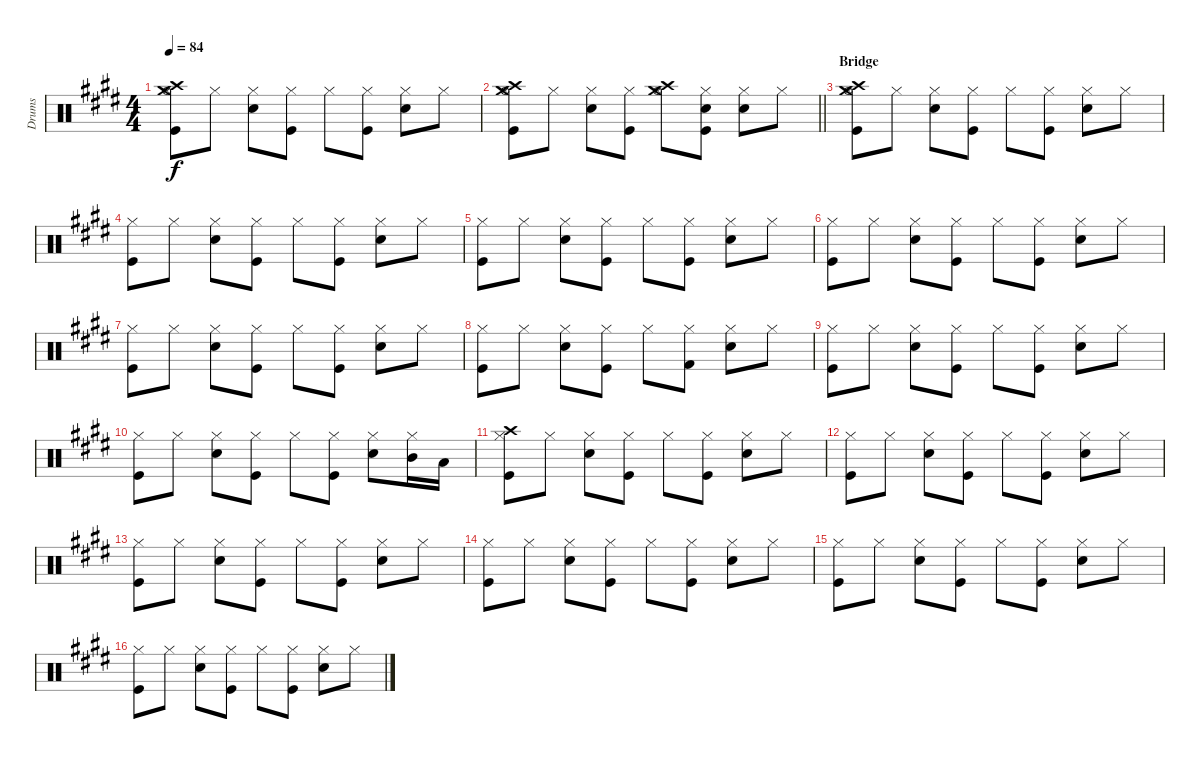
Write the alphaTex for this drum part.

\track ("Drums" "Drums") {instrument percussion}
\staff {score}
\articulation defaults
\ts (4 4)
\tempo 84
\clef neutral
\ks e
("Crash high (hit)" "Crash medium (hit)" "Hi-Hat (open)" "Kick (hit)").8{dy f} "Hi-Hat (closed)".8 ("Hi-Hat (closed)" "Snare (hit) 2").8 ("Hi-Hat (closed)" "Kick (hit)").8 "Hi-Hat (closed)".8 ("Hi-Hat (closed)" "Kick (hit)").8 ("Hi-Hat (closed)" "Snare (hit) 2").8 "Hi-Hat (closed)".8 |
\barLineRight lightlight
("Crash high (hit)" "Crash medium (hit)" "Hi-Hat (open)" "Kick (hit)").8 "Hi-Hat (closed)".8 ("Hi-Hat (closed)" "Snare (hit) 2").8 ("Hi-Hat (closed)" "Kick (hit)").8 ("Crash high (hit)" "Crash medium (hit)" "Hi-Hat (open)").8 ("Hi-Hat (closed)" "Kick (hit)" "Snare (hit) 2").8 ("Hi-Hat (closed)" "Snare (hit) 2").8 "Hi-Hat (closed)".8 |
\section ("" "Bridge")
("Crash high (hit)" "Crash medium (hit)" "Hi-Hat (open)" "Kick (hit)").8 "Hi-Hat (closed)".8 ("Hi-Hat (closed)" "Snare (hit) 2").8 ("Hi-Hat (closed)" "Kick (hit)").8 "Hi-Hat (closed)".8 ("Hi-Hat (closed)" "Kick (hit)").8 ("Hi-Hat (closed)" "Snare (hit) 2").8 "Hi-Hat (closed)".8 |
("Hi-Hat (closed)" "Kick (hit)").8 "Hi-Hat (closed)".8 ("Hi-Hat (closed)" "Snare (hit) 2").8 ("Hi-Hat (closed)" "Kick (hit)").8 "Hi-Hat (closed)".8 ("Hi-Hat (closed)" "Kick (hit)").8 ("Hi-Hat (closed)" "Snare (hit) 2").8 "Hi-Hat (closed)".8 |
("Hi-Hat (closed)" "Kick (hit)").8 "Hi-Hat (closed)".8 ("Hi-Hat (closed)" "Snare (hit) 2").8 ("Hi-Hat (closed)" "Kick (hit)").8 "Hi-Hat (closed)".8 ("Hi-Hat (closed)" "Kick (hit)").8 ("Hi-Hat (closed)" "Snare (hit) 2").8 "Hi-Hat (closed)".8 |
("Hi-Hat (closed)" "Kick (hit)").8 "Hi-Hat (closed)".8 ("Hi-Hat (closed)" "Snare (hit) 2").8 ("Hi-Hat (closed)" "Kick (hit)").8 "Hi-Hat (closed)".8 ("Hi-Hat (closed)" "Kick (hit)").8 ("Hi-Hat (closed)" "Snare (hit) 2").8 "Hi-Hat (closed)".8 |
("Hi-Hat (closed)" "Kick (hit)").8 "Hi-Hat (closed)".8 ("Hi-Hat (closed)" "Snare (hit) 2").8 ("Hi-Hat (closed)" "Kick (hit)").8 "Hi-Hat (closed)".8 ("Hi-Hat (closed)" "Kick (hit)").8 ("Hi-Hat (closed)" "Snare (hit) 2").8 "Hi-Hat (closed)".8 |
("Hi-Hat (closed)" "Kick (hit)").8 "Hi-Hat (closed)".8 ("Hi-Hat (closed)" "Snare (hit) 2").8 ("Hi-Hat (closed)" "Kick (hit)").8 "Hi-Hat (closed)".8 ("Hi-Hat (closed)" "Kick (hit) 2").8 ("Hi-Hat (closed)" "Snare (hit) 2").8 "Hi-Hat (closed)".8 |
("Hi-Hat (closed)" "Kick (hit)").8 "Hi-Hat (closed)".8 ("Hi-Hat (closed)" "Snare (hit) 2").8 ("Hi-Hat (closed)" "Kick (hit)").8 "Hi-Hat (closed)".8 ("Hi-Hat (closed)" "Kick (hit)").8 ("Hi-Hat (closed)" "Snare (hit) 2").8 "Hi-Hat (closed)".8 |
("Hi-Hat (closed)" "Kick (hit)").8 "Hi-Hat (closed)".8 ("Hi-Hat (closed)" "Snare (hit) 2").8 ("Hi-Hat (closed)" "Kick (hit)").8 "Hi-Hat (closed)".8 ("Hi-Hat (closed)" "Kick (hit)").8 ("Hi-Hat (closed)" "Snare (hit) 2").8 ("Hi-Hat (closed)" "Mid Tom (hit)").16 "Low Tom (hit)".16 |
("Hi-Hat (closed)" "Crash high (hit)" "Kick (hit)").8 "Hi-Hat (closed)".8 ("Hi-Hat (closed)" "Snare (hit) 2").8 ("Hi-Hat (closed)" "Kick (hit)").8 "Hi-Hat (closed)".8 ("Hi-Hat (closed)" "Kick (hit)").8 ("Hi-Hat (closed)" "Snare (hit) 2").8 "Hi-Hat (closed)".8 |
("Hi-Hat (closed)" "Kick (hit)").8 "Hi-Hat (closed)".8 ("Hi-Hat (closed)" "Snare (hit) 2").8 ("Hi-Hat (closed)" "Kick (hit)").8 "Hi-Hat (closed)".8 ("Hi-Hat (closed)" "Kick (hit)").8 ("Hi-Hat (closed)" "Snare (hit) 2").8 "Hi-Hat (closed)".8 |
("Hi-Hat (closed)" "Kick (hit)").8 "Hi-Hat (closed)".8 ("Hi-Hat (closed)" "Snare (hit) 2").8 ("Hi-Hat (closed)" "Kick (hit)").8 "Hi-Hat (closed)".8 ("Hi-Hat (closed)" "Kick (hit)").8 ("Hi-Hat (closed)" "Snare (hit) 2").8 "Hi-Hat (closed)".8 |
("Hi-Hat (closed)" "Kick (hit)").8 "Hi-Hat (closed)".8 ("Hi-Hat (closed)" "Snare (hit) 2").8 ("Hi-Hat (closed)" "Kick (hit)").8 "Hi-Hat (closed)".8 ("Hi-Hat (closed)" "Kick (hit)").8 ("Hi-Hat (closed)" "Snare (hit) 2").8 "Hi-Hat (closed)".8 |
("Hi-Hat (closed)" "Kick (hit)").8 "Hi-Hat (closed)".8 ("Hi-Hat (closed)" "Snare (hit) 2").8 ("Hi-Hat (closed)" "Kick (hit)").8 "Hi-Hat (closed)".8 ("Hi-Hat (closed)" "Kick (hit)").8 ("Hi-Hat (closed)" "Snare (hit) 2").8 "Hi-Hat (closed)".8 |
("Hi-Hat (closed)" "Kick (hit)").8 "Hi-Hat (closed)".8 ("Hi-Hat (closed)" "Snare (hit) 2").8 ("Hi-Hat (closed)" "Kick (hit)").8 "Hi-Hat (closed)".8 ("Hi-Hat (closed)" "Kick (hit)").8 ("Hi-Hat (closed)" "Snare (hit) 2").8 "Hi-Hat (closed)".8
